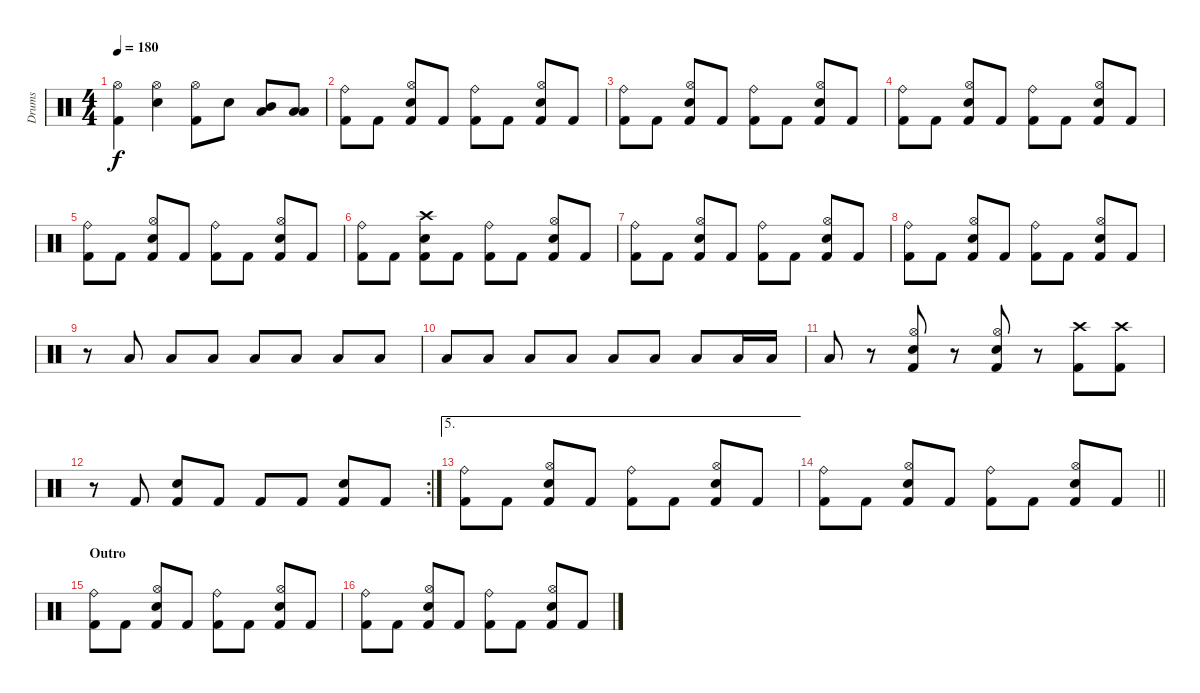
\track ("Drums" "Drums") {instrument percussion}
\staff {score}
\articulation defaults
\ts (4 4)
\tempo 180
\clef neutral
\ks c
("Kick (hit) 2" "Hi-Hat (open)").4{dy f} ("Snare (hit) 2" "Hi-Hat (open)").4 ("Kick (hit) 2" "Hi-Hat (open)").8 "Snare (hit) 2".8 ("Mid Tom (hit)" "Low Tom (hit)").8 ("Low Tom (hit)" "Low Floor Tom (hit)").8 |
("Ride (bell)" "Kick (hit) 2").8 "Kick (hit) 2".8 ("Snare (hit) 2" "Hi-Hat (open)" "Kick (hit) 2").8 "Kick (hit) 2".8 ("Ride (bell)" "Kick (hit) 2").8 "Kick (hit) 2".8 ("Snare (hit) 2" "Hi-Hat (open)" "Kick (hit) 2").8 "Kick (hit) 2".8 |
("Ride (bell)" "Kick (hit) 2").8 "Kick (hit) 2".8 ("Snare (hit) 2" "Hi-Hat (open)" "Kick (hit) 2").8 "Kick (hit) 2".8 ("Ride (bell)" "Kick (hit) 2").8 "Kick (hit) 2".8 ("Snare (hit) 2" "Hi-Hat (open)" "Kick (hit) 2").8 "Kick (hit) 2".8 |
("Ride (bell)" "Kick (hit) 2").8 "Kick (hit) 2".8 ("Snare (hit) 2" "Hi-Hat (open)" "Kick (hit) 2").8 "Kick (hit) 2".8 ("Ride (bell)" "Kick (hit) 2").8 "Kick (hit) 2".8 ("Snare (hit) 2" "Hi-Hat (open)" "Kick (hit) 2").8 "Kick (hit) 2".8 |
("Ride (bell)" "Kick (hit) 2").8 "Kick (hit) 2".8 ("Snare (hit) 2" "Hi-Hat (open)" "Kick (hit) 2").8 "Kick (hit) 2".8 ("Ride (bell)" "Kick (hit) 2").8 "Kick (hit) 2".8 ("Snare (hit) 2" "Hi-Hat (open)" "Kick (hit) 2").8 "Kick (hit) 2".8 |
("Ride (bell)" "Kick (hit) 2").8 "Kick (hit) 2".8 ("Snare (hit) 2" "Crash high (hit)" "Kick (hit) 2").8 "Kick (hit) 2".8 ("Ride (bell)" "Kick (hit) 2").8 "Kick (hit) 2".8 ("Snare (hit) 2" "Hi-Hat (open)" "Kick (hit) 2").8 "Kick (hit) 2".8 |
("Ride (bell)" "Kick (hit) 2").8 "Kick (hit) 2".8 ("Snare (hit) 2" "Hi-Hat (open)" "Kick (hit) 2").8 "Kick (hit) 2".8 ("Ride (bell)" "Kick (hit) 2").8 "Kick (hit) 2".8 ("Snare (hit) 2" "Hi-Hat (open)" "Kick (hit) 2").8 "Kick (hit) 2".8 |
("Ride (bell)" "Kick (hit) 2").8 "Kick (hit) 2".8 ("Snare (hit) 2" "Hi-Hat (open)" "Kick (hit) 2").8 "Kick (hit) 2".8 ("Ride (bell)" "Kick (hit) 2").8 "Kick (hit) 2".8 ("Snare (hit) 2" "Hi-Hat (open)" "Kick (hit) 2").8 "Kick (hit) 2".8 |
r.8 "Low Floor Tom (hit)".8 "Low Floor Tom (hit)".8 "Low Floor Tom (hit)".8 "Low Floor Tom (hit)".8 "Low Floor Tom (hit)".8 "Low Floor Tom (hit)".8 "Low Floor Tom (hit)".8 |
"Low Floor Tom (hit)".8 "Low Floor Tom (hit)".8 "Low Floor Tom (hit)".8 "Low Floor Tom (hit)".8 "Low Floor Tom (hit)".8 "Low Floor Tom (hit)".8 "Low Floor Tom (hit)".8 "Low Tom (hit)".16 "Low Tom (hit)".16 |
"Low Tom (hit)".8 r.8 ("Hi-Hat (open)" "Snare (hit) 2" "Kick (hit) 2").8 r.8 ("Hi-Hat (open)" "Snare (hit) 2" "Kick (hit) 2").8 r.8 ("Kick (hit) 2" "Crash high (hit)").8 ("Kick (hit) 2" "Crash high (hit)").8 |
\rc 2
r.8 "Kick (hit) 2".8 ("Snare (hit) 2" "Kick (hit) 2").8 "Kick (hit) 2".8 "Kick (hit) 2".8 "Kick (hit) 2".8 ("Snare (hit) 2" "Kick (hit) 2").8 "Kick (hit) 2".8 |
\ae 5
("Ride (bell)" "Kick (hit) 2").8 "Kick (hit) 2".8 ("Snare (hit) 2" "Hi-Hat (open)" "Kick (hit) 2").8 "Kick (hit) 2".8 ("Ride (bell)" "Kick (hit) 2").8 "Kick (hit) 2".8 ("Snare (hit) 2" "Hi-Hat (open)" "Kick (hit) 2").8 "Kick (hit) 2".8 |
\barLineRight lightlight
("Ride (bell)" "Kick (hit) 2").8 "Kick (hit) 2".8 ("Snare (hit) 2" "Hi-Hat (open)" "Kick (hit) 2").8 "Kick (hit) 2".8 ("Ride (bell)" "Kick (hit) 2").8 "Kick (hit) 2".8 ("Snare (hit) 2" "Hi-Hat (open)" "Kick (hit) 2").8 "Kick (hit) 2".8 |
\section ("" "Outro")
("Ride (bell)" "Kick (hit) 2").8 "Kick (hit) 2".8 ("Snare (hit) 2" "Hi-Hat (open)" "Kick (hit) 2").8 "Kick (hit) 2".8 ("Ride (bell)" "Kick (hit) 2").8 "Kick (hit) 2".8 ("Snare (hit) 2" "Hi-Hat (open)" "Kick (hit) 2").8 "Kick (hit) 2".8 |
("Ride (bell)" "Kick (hit) 2").8 "Kick (hit) 2".8 ("Snare (hit) 2" "Hi-Hat (open)" "Kick (hit) 2").8 "Kick (hit) 2".8 ("Ride (bell)" "Kick (hit) 2").8 "Kick (hit) 2".8 ("Snare (hit) 2" "Hi-Hat (open)" "Kick (hit) 2").8 "Kick (hit) 2".8
